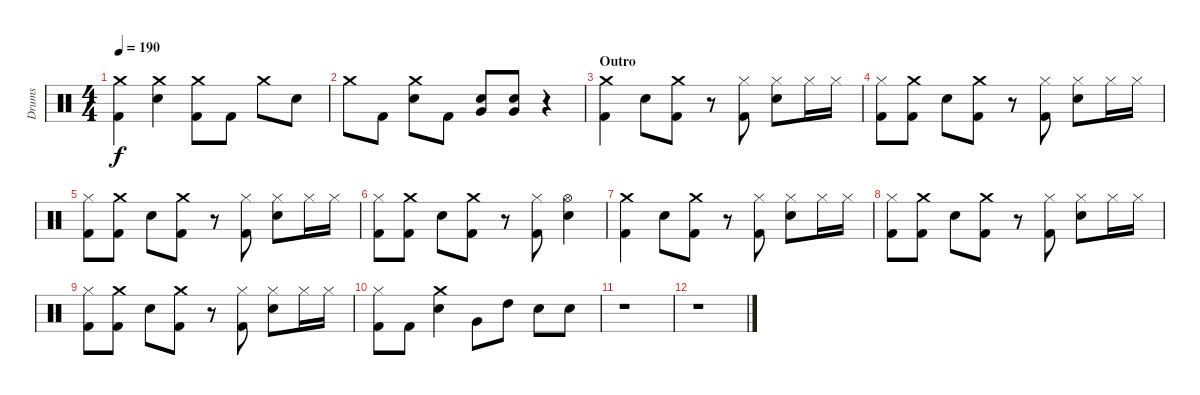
\track ("Drums" "Drums") {instrument percussion}
\staff {score}
\articulation defaults
\ts (4 4)
\tempo 190
\clef neutral
\ks c
("Crash medium (hit)" "Kick (hit) 2").4{dy f} ("Crash medium (hit)" "Snare (hit) 2").4 ("Crash medium (hit)" "Kick (hit) 2").8 "Kick (hit) 2".8 "Crash medium (hit)".8 "Snare (hit) 2".8 |
"Crash medium (hit)".8 "Kick (hit) 2".8 ("Crash medium (hit)" "Snare (hit) 2").8 "Kick (hit) 2".8 ("Snare (hit) 2" "Very Low Tom (hit)").8 ("Snare (hit) 2" "Very Low Tom (hit)").8 r.4 |
\section ("" "Outro")
("Crash medium (hit)" "Kick (hit) 2").4 "Snare (hit) 2".8 ("Crash medium (hit)" "Kick (hit) 2").8 r.8 ("Hi-Hat (closed)" "Kick (hit) 2").8 ("Hi-Hat (closed)" "Snare (hit) 2").8 "Hi-Hat (closed)".16 "Hi-Hat (closed)".16 |
("Hi-Hat (closed)" "Kick (hit) 2").8 ("Crash medium (hit)" "Kick (hit) 2").8 "Snare (hit) 2".8 ("Crash medium (hit)" "Kick (hit) 2").8 r.8 ("Hi-Hat (closed)" "Kick (hit) 2").8 ("Hi-Hat (closed)" "Snare (hit) 2").8 "Hi-Hat (closed)".16 "Hi-Hat (closed)".16 |
("Hi-Hat (closed)" "Kick (hit) 2").8 ("Crash medium (hit)" "Kick (hit) 2").8 "Snare (hit) 2".8 ("Crash medium (hit)" "Kick (hit) 2").8 r.8 ("Hi-Hat (closed)" "Kick (hit) 2").8 ("Hi-Hat (closed)" "Snare (hit) 2").8 "Hi-Hat (closed)".16 "Hi-Hat (closed)".16 |
("Hi-Hat (closed)" "Kick (hit) 2").8 ("Crash medium (hit)" "Kick (hit) 2").8 "Snare (hit) 2".8 ("Crash medium (hit)" "Kick (hit) 2").8 r.8 ("Hi-Hat (closed)" "Kick (hit) 2").8 ("Hi-Hat (open)" "Snare (hit) 2").4 |
("Crash medium (hit)" "Kick (hit) 2").4 "Snare (hit) 2".8 ("Crash medium (hit)" "Kick (hit) 2").8 r.8 ("Hi-Hat (closed)" "Kick (hit) 2").8 ("Hi-Hat (closed)" "Snare (hit) 2").8 "Hi-Hat (closed)".16 "Hi-Hat (closed)".16 |
("Hi-Hat (closed)" "Kick (hit) 2").8 ("Crash medium (hit)" "Kick (hit) 2").8 "Snare (hit) 2".8 ("Crash medium (hit)" "Kick (hit) 2").8 r.8 ("Hi-Hat (closed)" "Kick (hit) 2").8 ("Hi-Hat (closed)" "Snare (hit) 2").8 "Hi-Hat (closed)".16 "Hi-Hat (closed)".16 |
("Hi-Hat (closed)" "Kick (hit) 2").8 ("Crash medium (hit)" "Kick (hit) 2").8 "Snare (hit) 2".8 ("Crash medium (hit)" "Kick (hit) 2").8 r.8 ("Hi-Hat (closed)" "Kick (hit) 2").8 ("Hi-Hat (closed)" "Snare (hit) 2").8 "Hi-Hat (closed)".16 "Hi-Hat (closed)".16 |
("Hi-Hat (closed)" "Kick (hit) 2").8 "Kick (hit) 2".8 ("Crash medium (hit)" "Snare (hit) 2").4 "Very Low Tom (hit)".8 "High Tom (hit)".8 "Snare (hit) 2".8 "Snare (hit) 2".8 |
r.1 |
r.1
